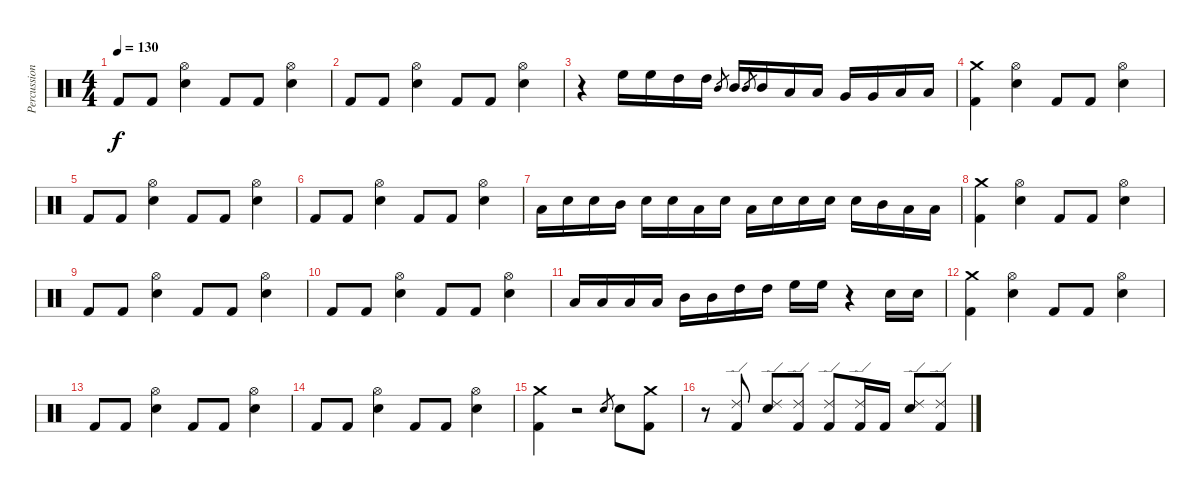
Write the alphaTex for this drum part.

\track ("Percussion" "Percussion") {instrument percussion}
\staff {score}
\articulation defaults
\ts (4 4)
\tempo 130
\clef neutral
\ks c "Kick (hit) 2".8{dy f} "Kick (hit) 2".8
("Electric Snare (hit)" "Hi-Hat (open)").4 "Kick (hit) 2".8 "Kick (hit) 2".8 ("Electric Snare (hit)" "Hi-Hat (open)").4 |
"Kick (hit) 2".8 "Kick (hit) 2".8 ("Electric Snare (hit)" "Hi-Hat (open)").4 "Kick (hit) 2".8 "Kick (hit) 2".8 ("Electric Snare (hit)" "Hi-Hat (open)").4 |
r.4 "High Floor Tom (hit)".16 "High Floor Tom (hit)".16 "High Tom (hit)".16 "High Tom (hit)".16 "Mid Tom (hit)".8{gr} "Mid Tom (hit)".16 "Mid Tom (hit)".8{gr} "Mid Tom (hit)".16 "Low Tom (hit)".16 "Low Tom (hit)".16 "Very Low Tom (hit)".16 "Very Low Tom (hit)".16 "Low Floor Tom (hit)".16 "Low Floor Tom (hit)".16 |
("Kick (hit) 2" "Crash medium (hit)").4 ("Electric Snare (hit)" "Hi-Hat (open)").4 "Kick (hit) 2".8 "Kick (hit) 2".8 ("Electric Snare (hit)" "Hi-Hat (open)").4 |
"Kick (hit) 2".8 "Kick (hit) 2".8 ("Electric Snare (hit)" "Hi-Hat (open)").4 "Kick (hit) 2".8 "Kick (hit) 2".8 ("Electric Snare (hit)" "Hi-Hat (open)").4 |
"Kick (hit) 2".8 "Kick (hit) 2".8 ("Electric Snare (hit)" "Hi-Hat (open)").4 "Kick (hit) 2".8 "Kick (hit) 2".8 ("Electric Snare (hit)" "Hi-Hat (open)").4 |
"Low Tom (hit)".16 "Electric Snare (hit)".16 "Electric Snare (hit)".16 "Mid Tom (hit)".16 "Electric Snare (hit)".16 "Electric Snare (hit)".16 "Low Tom (hit)".16 "Electric Snare (hit)".16 "Low Tom (hit)".16 "Electric Snare (hit)".16 "Electric Snare (hit)".16 "Electric Snare (hit)".16 "Electric Snare (hit)".16 "Mid Tom (hit)".16 "Low Tom (hit)".16 "Low Tom (hit)".16 |
("Kick (hit) 2" "Crash medium (hit)").4 ("Electric Snare (hit)" "Hi-Hat (open)").4 "Kick (hit) 2".8 "Kick (hit) 2".8 ("Electric Snare (hit)" "Hi-Hat (open)").4 |
"Kick (hit) 2".8 "Kick (hit) 2".8 ("Electric Snare (hit)" "Hi-Hat (open)").4 "Kick (hit) 2".8 "Kick (hit) 2".8 ("Electric Snare (hit)" "Hi-Hat (open)").4 |
"Kick (hit) 2".8 "Kick (hit) 2".8 ("Electric Snare (hit)" "Hi-Hat (open)").4 "Kick (hit) 2".8 "Kick (hit) 2".8 ("Electric Snare (hit)" "Hi-Hat (open)").4 |
"Low Tom (hit)".16 "Low Tom (hit)".16 "Low Tom (hit)".16 "Low Tom (hit)".16 "Mid Tom (hit)".16 "Mid Tom (hit)".16 "High Tom (hit)".16 "High Tom (hit)".16 "High Floor Tom (hit)".16 "High Floor Tom (hit)".16 r.4 "Electric Snare (hit)".16 "Electric Snare (hit)".16 |
("Kick (hit) 2" "Crash medium (hit)").4 ("Electric Snare (hit)" "Hi-Hat (open)").4 "Kick (hit) 2".8 "Kick (hit) 2".8 ("Electric Snare (hit)" "Hi-Hat (open)").4 |
"Kick (hit) 2".8 "Kick (hit) 2".8 ("Electric Snare (hit)" "Hi-Hat (open)").4 "Kick (hit) 2".8 "Kick (hit) 2".8 ("Electric Snare (hit)" "Hi-Hat (open)").4 |
"Kick (hit) 2".8 "Kick (hit) 2".8 ("Electric Snare (hit)" "Hi-Hat (open)").4 "Kick (hit) 2".8 "Kick (hit) 2".8 ("Electric Snare (hit)" "Hi-Hat (open)").4 |
("Kick (hit) 2" "Crash medium (hit)").4 r.2 "Electric Snare (hit)".8{gr} "Electric Snare (hit)".8 ("Kick (hit) 2" "Crash medium (hit)").8 |
r.8 ("Kick (hit) 2" "Ride (edge) 2").8 ("Electric Snare (hit)" "Ride (edge) 2").8 ("Kick (hit) 2" "Ride (edge) 2").8 ("Kick (hit) 2" "Ride (edge) 2").8 ("Kick (hit) 2" "Ride (edge) 2").16 "Kick (hit) 2".16 ("Electric Snare (hit)" "Ride (edge) 2").8 ("Kick (hit) 2" "Ride (edge) 2").8
